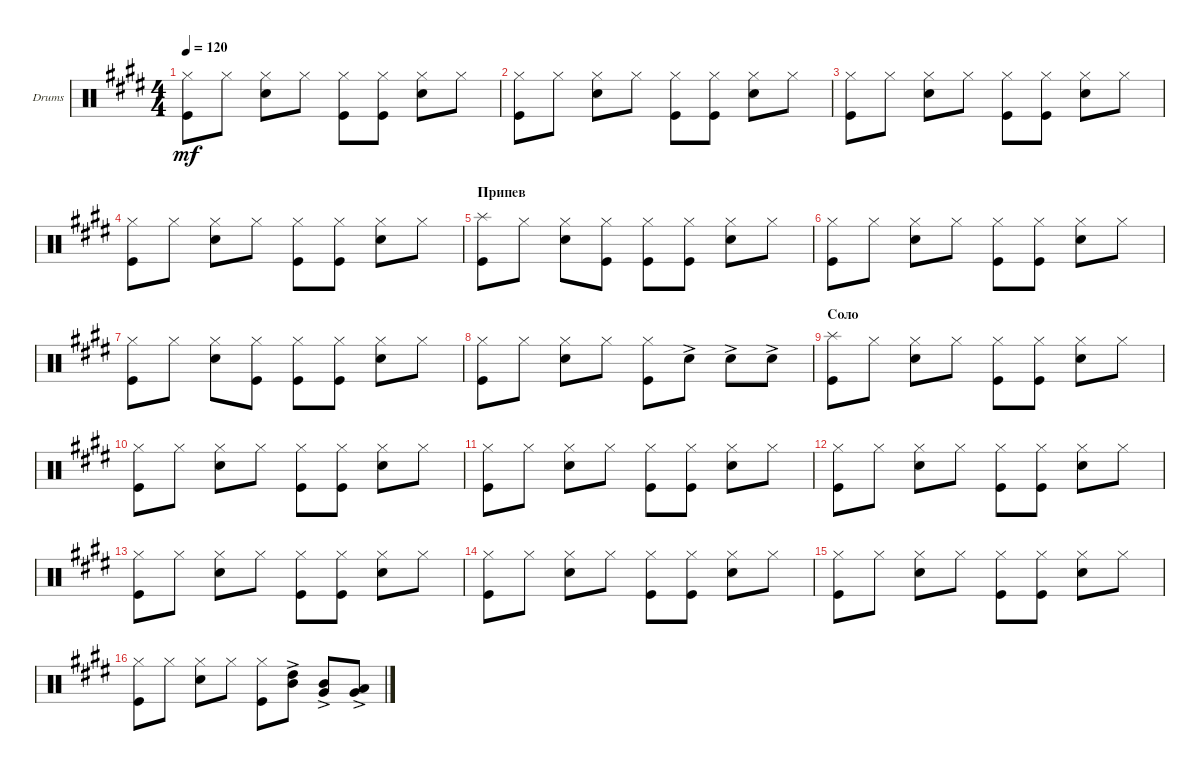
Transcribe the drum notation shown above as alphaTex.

\defaultSystemsLayout 4
\bracketExtendMode groupsimilarinstruments
\firstSystemTrackNameOrientation horizontal
\otherSystemsTrackNameOrientation horizontal
\track ("Drumkit" "Drums") {instrument percussion}
\staff {score}
\articulation defaults
\ts (4 4)
\tempo 120
\clef neutral
\scale
0.25
\ks c#minor
("Kick (hit)" "Hi-Hat (closed)").8{dy mf} "Hi-Hat (closed)".8 ("Hi-Hat (closed)" "Snare (hit) 2").8 "Hi-Hat (closed)".8 ("Kick (hit)" "Hi-Hat (closed)").8 ("Hi-Hat (closed)" "Kick (hit)").8 ("Hi-Hat (closed)" "Snare (hit) 2").8 "Hi-Hat (closed)".8 |
\scale
0.25 ("Kick (hit)" "Hi-Hat (closed)").8 "Hi-Hat (closed)".8 ("Hi-Hat (closed)" "Snare (hit) 2").8 "Hi-Hat (closed)".8 ("Kick (hit)" "Hi-Hat (closed)").8 ("Hi-Hat (closed)" "Kick (hit)").8 ("Hi-Hat (closed)" "Snare (hit) 2").8 "Hi-Hat (closed)".8 |
\scale
0.25 ("Kick (hit)" "Hi-Hat (closed)").8 "Hi-Hat (closed)".8 ("Hi-Hat (closed)" "Snare (hit) 2").8 "Hi-Hat (closed)".8 ("Kick (hit)" "Hi-Hat (closed)").8 ("Hi-Hat (closed)" "Kick (hit)").8 ("Hi-Hat (closed)" "Snare (hit) 2").8 "Hi-Hat (closed)".8 |
\scale
0.25 ("Kick (hit)" "Hi-Hat (closed)").8 "Hi-Hat (closed)".8 ("Hi-Hat (closed)" "Snare (hit) 2").8 "Hi-Hat (closed)".8 ("Kick (hit)" "Hi-Hat (closed)").8 ("Hi-Hat (closed)" "Kick (hit)").8 ("Hi-Hat (closed)" "Snare (hit) 2").8 "Hi-Hat (closed)".8 |
\section ("" "Припев")
("Kick (hit)" "Splash (hit)").8 "Hi-Hat (closed)".8 ("Hi-Hat (closed)" "Snare (hit) 2").8 ("Hi-Hat (closed)" "Kick (hit)").8 ("Kick (hit)" "Hi-Hat (closed)").8 ("Hi-Hat (closed)" "Kick (hit)").8 ("Hi-Hat (closed)" "Snare (hit) 2").8 "Hi-Hat (closed)".8 |
("Kick (hit)" "Hi-Hat (closed)").8 "Hi-Hat (closed)".8 ("Hi-Hat (closed)" "Snare (hit) 2").8 "Hi-Hat (closed)".8 ("Kick (hit)" "Hi-Hat (closed)").8 ("Hi-Hat (closed)" "Kick (hit)").8 ("Hi-Hat (closed)" "Snare (hit) 2").8 "Hi-Hat (closed)".8 |
("Kick (hit)" "Hi-Hat (closed)").8 "Hi-Hat (closed)".8 ("Hi-Hat (closed)" "Snare (hit) 2").8 ("Hi-Hat (closed)" "Kick (hit)").8 ("Kick (hit)" "Hi-Hat (closed)").8 ("Hi-Hat (closed)" "Kick (hit)").8 ("Hi-Hat (closed)" "Snare (hit) 2").8 "Hi-Hat (closed)".8 |
("Kick (hit)" "Hi-Hat (closed)").8 "Hi-Hat (closed)".8 ("Hi-Hat (closed)" "Snare (hit) 2").8 "Hi-Hat (closed)".8 ("Kick (hit)" "Hi-Hat (closed)").8 "Snare (hit) 2"{ac}.8 "Snare (hit) 2"{ac}.8 "Snare (hit) 2"{ac}.8 |
\section ("" "Соло")
("Kick (hit)" "Splash (hit)").8 "Hi-Hat (closed)".8 ("Hi-Hat (closed)" "Snare (hit) 2").8 "Hi-Hat (closed)".8 ("Kick (hit)" "Hi-Hat (closed)").8 ("Hi-Hat (closed)" "Kick (hit)").8 ("Hi-Hat (closed)" "Snare (hit) 2").8 "Hi-Hat (closed)".8 |
("Kick (hit)" "Hi-Hat (closed)").8 "Hi-Hat (closed)".8 ("Hi-Hat (closed)" "Snare (hit) 2").8 "Hi-Hat (closed)".8 ("Kick (hit)" "Hi-Hat (closed)").8 ("Hi-Hat (closed)" "Kick (hit)").8 ("Hi-Hat (closed)" "Snare (hit) 2").8 "Hi-Hat (closed)".8 |
("Kick (hit)" "Hi-Hat (closed)").8 "Hi-Hat (closed)".8 ("Hi-Hat (closed)" "Snare (hit) 2").8 "Hi-Hat (closed)".8 ("Kick (hit)" "Hi-Hat (closed)").8 ("Hi-Hat (closed)" "Kick (hit)").8 ("Hi-Hat (closed)" "Snare (hit) 2").8 "Hi-Hat (closed)".8 |
("Kick (hit)" "Hi-Hat (closed)").8 "Hi-Hat (closed)".8 ("Hi-Hat (closed)" "Snare (hit) 2").8 "Hi-Hat (closed)".8 ("Kick (hit)" "Hi-Hat (closed)").8 ("Hi-Hat (closed)" "Kick (hit)").8 ("Hi-Hat (closed)" "Snare (hit) 2").8 "Hi-Hat (closed)".8 |
("Kick (hit)" "Hi-Hat (closed)").8 "Hi-Hat (closed)".8 ("Hi-Hat (closed)" "Snare (hit) 2").8 "Hi-Hat (closed)".8 ("Kick (hit)" "Hi-Hat (closed)").8 ("Hi-Hat (closed)" "Kick (hit)").8 ("Hi-Hat (closed)" "Snare (hit) 2").8 "Hi-Hat (closed)".8 |
("Kick (hit)" "Hi-Hat (closed)").8 "Hi-Hat (closed)".8 ("Hi-Hat (closed)" "Snare (hit) 2").8 "Hi-Hat (closed)".8 ("Kick (hit)" "Hi-Hat (closed)").8 ("Hi-Hat (closed)" "Kick (hit)").8 ("Hi-Hat (closed)" "Snare (hit) 2").8 "Hi-Hat (closed)".8 |
("Kick (hit)" "Hi-Hat (closed)").8 "Hi-Hat (closed)".8 ("Hi-Hat (closed)" "Snare (hit) 2").8 "Hi-Hat (closed)".8 ("Kick (hit)" "Hi-Hat (closed)").8 ("Hi-Hat (closed)" "Kick (hit)").8 ("Hi-Hat (closed)" "Snare (hit) 2").8 "Hi-Hat (closed)".8 |
("Kick (hit)" "Hi-Hat (closed)").8 "Hi-Hat (closed)".8 ("Hi-Hat (closed)" "Snare (hit) 2").8 "Hi-Hat (closed)".8 ("Kick (hit)" "Hi-Hat (closed)").8 ("High Tom (hit)"{ac} "Mid Tom (hit)"{ac}).8 ("Mid Tom (hit)"{ac} "Very Low Tom (hit)"{ac}).8 ("Low Tom (hit)"{ac} "Very Low Tom (hit)"{ac}).8
